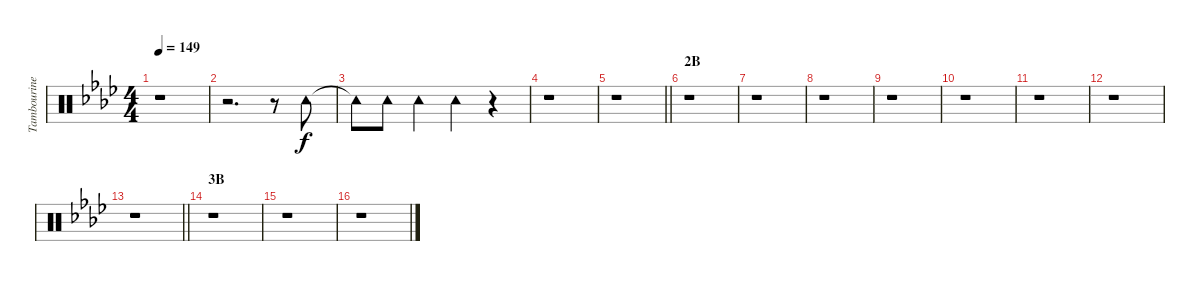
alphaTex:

\track ("Tambourine" "Tambourine") {instrument percussion}
\staff {score}
\articulation defaults
\ts (4 4)
\tempo 149
\clef neutral
\ks ab
r.1{dy f} |
r.2{d} r.8 "Tambourine (hit)".8 |
"Tambourine (hit)"{t}.8 "Tambourine (hit)".8 "Tambourine (hit)".4 "Tambourine (hit)".4 r.4 |
r.1 |
\barLineRight lightlight
r.1 |
\section ("" "2B")
r.1 |
r.1 |
r.1 |
r.1 |
r.1 |
r.1 |
r.1 |
\barLineRight lightlight
r.1 |
\section ("" "3B")
r.1 |
r.1 |
r.1
